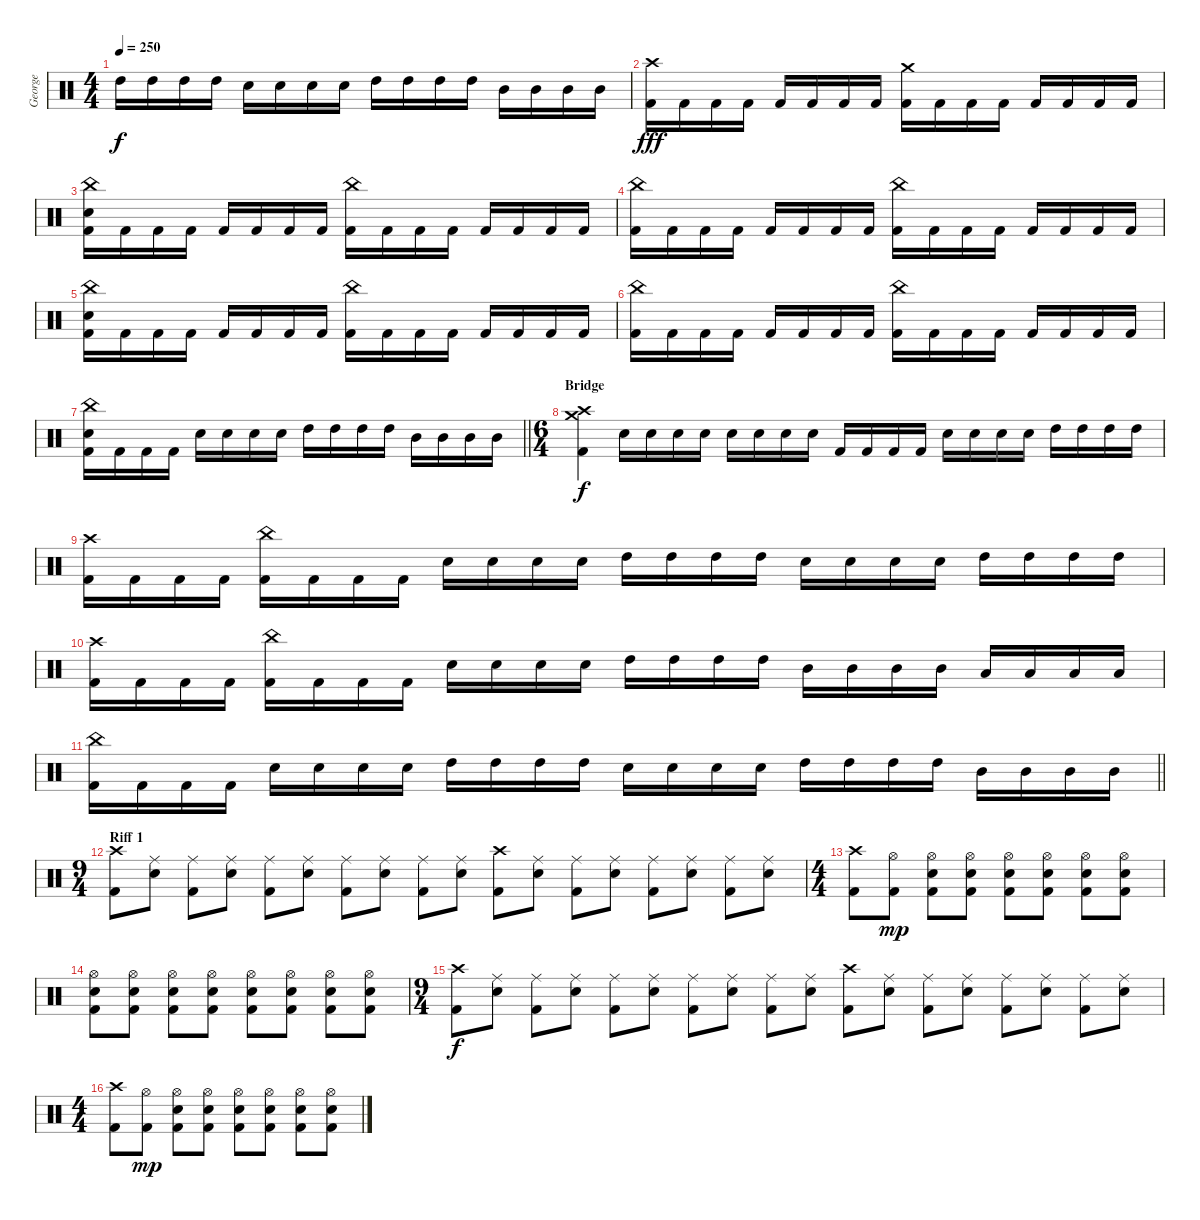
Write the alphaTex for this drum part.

\track ("George" "George") {instrument percussion}
\staff {score}
\articulation defaults
\ts (4 4)
\tempo 250
\clef neutral
\ks c "High Tom (hit)".16{dy f} "High Tom (hit)".16 "High Tom (hit)".16 "High Tom (hit)".16 "Snare (hit) 2".16 "Snare (hit) 2".16 "Snare (hit) 2".16 "Snare (hit) 2".16 "High Tom (hit)".16 "High Tom (hit)".16 "High Tom (hit)".16 "High Tom (hit)".16 "Mid Tom (hit)".16 "Mid Tom (hit)".16 "Mid Tom (hit)".16 "Mid Tom (hit)".16
|
("Crash high (hit)" "Kick (hit) 2").16{dy fff} "Kick (hit) 2".16 "Kick (hit) 2".16 "Kick (hit) 2".16 "Kick (hit) 2".16 "Kick (hit) 2".16 "Kick (hit) 2".16 "Kick (hit) 2".16 ("Crash medium (hit)" "Kick (hit) 2").16 "Kick (hit) 2".16 "Kick (hit) 2".16 "Kick (hit) 2".16 "Kick (hit) 2".16 "Kick (hit) 2".16 "Kick (hit) 2".16 "Kick (hit) 2".16 |
("China (hit)" "Snare (hit) 2" "Kick (hit) 2").16 "Kick (hit) 2".16 "Kick (hit) 2".16 "Kick (hit) 2".16 "Kick (hit) 2".16 "Kick (hit) 2".16 "Kick (hit) 2".16 "Kick (hit) 2".16 ("China (hit)" "Kick (hit) 2").16 "Kick (hit) 2".16 "Kick (hit) 2".16 "Kick (hit) 2".16 "Kick (hit) 2".16 "Kick (hit) 2".16 "Kick (hit) 2".16 "Kick (hit) 2".16 |
("China (hit)" "Kick (hit) 2").16 "Kick (hit) 2".16 "Kick (hit) 2".16 "Kick (hit) 2".16 "Kick (hit) 2".16 "Kick (hit) 2".16 "Kick (hit) 2".16 "Kick (hit) 2".16 ("China (hit)" "Kick (hit) 2").16 "Kick (hit) 2".16 "Kick (hit) 2".16 "Kick (hit) 2".16 "Kick (hit) 2".16 "Kick (hit) 2".16 "Kick (hit) 2".16 "Kick (hit) 2".16 |
("China (hit)" "Snare (hit) 2" "Kick (hit) 2").16 "Kick (hit) 2".16 "Kick (hit) 2".16 "Kick (hit) 2".16 "Kick (hit) 2".16 "Kick (hit) 2".16 "Kick (hit) 2".16 "Kick (hit) 2".16 ("China (hit)" "Kick (hit) 2").16 "Kick (hit) 2".16 "Kick (hit) 2".16 "Kick (hit) 2".16 "Kick (hit) 2".16 "Kick (hit) 2".16 "Kick (hit) 2".16 "Kick (hit) 2".16 |
("China (hit)" "Kick (hit) 2").16 "Kick (hit) 2".16 "Kick (hit) 2".16 "Kick (hit) 2".16 "Kick (hit) 2".16 "Kick (hit) 2".16 "Kick (hit) 2".16 "Kick (hit) 2".16 ("China (hit)" "Kick (hit) 2").16 "Kick (hit) 2".16 "Kick (hit) 2".16 "Kick (hit) 2".16 "Kick (hit) 2".16 "Kick (hit) 2".16 "Kick (hit) 2".16 "Kick (hit) 2".16 |
\barLineRight lightlight
("China (hit)" "Snare (hit) 2" "Kick (hit) 2").16 "Kick (hit) 2".16 "Kick (hit) 2".16 "Kick (hit) 2".16 "Snare (hit) 2".16 "Snare (hit) 2".16 "Snare (hit) 2".16 "Snare (hit) 2".16 "High Tom (hit)".16 "High Tom (hit)".16 "High Tom (hit)".16 "High Tom (hit)".16 "Mid Tom (hit)".16 "Mid Tom (hit)".16 "Mid Tom (hit)".16 "Mid Tom (hit)".16 |
\ts (6 4)
\section ("" "Bridge")
("Crash high (hit)" "Crash medium (hit)" "Kick (hit) 2").4{dy f} "Snare (hit) 2".16 "Snare (hit) 2".16 "Snare (hit) 2".16 "Snare (hit) 2".16 "Snare (hit) 2".16 "Snare (hit) 2".16 "Snare (hit) 2".16 "Snare (hit) 2".16 "Kick (hit) 2".16 "Kick (hit) 2".16 "Kick (hit) 2".16 "Kick (hit) 2".16 "Snare (hit) 2".16 "Snare (hit) 2".16 "Snare (hit) 2".16 "Snare (hit) 2".16 "High Tom (hit)".16 "High Tom (hit)".16 "High Tom (hit)".16 "High Tom (hit)".16 |
("Crash high (hit)" "Kick (hit) 2").16 "Kick (hit) 2".16 "Kick (hit) 2".16 "Kick (hit) 2".16 ("China (hit)" "Kick (hit) 2").16 "Kick (hit) 2".16 "Kick (hit) 2".16 "Kick (hit) 2".16 "Snare (hit) 2".16 "Snare (hit) 2".16 "Snare (hit) 2".16 "Snare (hit) 2".16 "High Tom (hit)".16 "High Tom (hit)".16 "High Tom (hit)".16 "High Tom (hit)".16 "Snare (hit) 2".16 "Snare (hit) 2".16 "Snare (hit) 2".16 "Snare (hit) 2".16 "High Tom (hit)".16 "High Tom (hit)".16 "High Tom (hit)".16 "High Tom (hit)".16 |
("Crash high (hit)" "Kick (hit) 2").16 "Kick (hit) 2".16 "Kick (hit) 2".16 "Kick (hit) 2".16 ("China (hit)" "Kick (hit) 2").16 "Kick (hit) 2".16 "Kick (hit) 2".16 "Kick (hit) 2".16 "Snare (hit) 2".16 "Snare (hit) 2".16 "Snare (hit) 2".16 "Snare (hit) 2".16 "High Tom (hit)".16 "High Tom (hit)".16 "High Tom (hit)".16 "High Tom (hit)".16 "Mid Tom (hit)".16 "Mid Tom (hit)".16 "Mid Tom (hit)".16 "Mid Tom (hit)".16 "Low Tom (hit)".16 "Low Tom (hit)".16 "Low Tom (hit)".16 "Low Tom (hit)".16 |
\barLineRight lightlight
("China (hit)" "Kick (hit) 2").16 "Kick (hit) 2".16 "Kick (hit) 2".16 "Kick (hit) 2".16 "Snare (hit) 2".16 "Snare (hit) 2".16 "Snare (hit) 2".16 "Snare (hit) 2".16 "High Tom (hit)".16 "High Tom (hit)".16 "High Tom (hit)".16 "High Tom (hit)".16 "Snare (hit) 2".16 "Snare (hit) 2".16 "Snare (hit) 2".16 "Snare (hit) 2".16 "High Tom (hit)".16 "High Tom (hit)".16 "High Tom (hit)".16 "High Tom (hit)".16 "Mid Tom (hit)".16 "Mid Tom (hit)".16 "Mid Tom (hit)".16 "Mid Tom (hit)".16 |
\ts (9 4)
\section ("" "Riff 1")
("Crash high (hit)" "Kick (hit) 2").8 ("Ride (middle)" "Snare (hit) 2").8 ("Ride (middle)" "Kick (hit) 2").8 ("Ride (middle)" "Snare (hit) 2").8 ("Ride (middle)" "Kick (hit) 2").8 ("Ride (middle)" "Snare (hit) 2").8 ("Ride (middle)" "Kick (hit) 2").8 ("Ride (middle)" "Snare (hit) 2").8 ("Ride (middle)" "Kick (hit) 2").8 ("Ride (middle)" "Snare (hit) 2").8 ("Crash high (hit)" "Kick (hit) 2").8 ("Ride (middle)" "Snare (hit) 2").8 ("Ride (middle)" "Kick (hit) 2").8 ("Ride (middle)" "Snare (hit) 2").8 ("Ride (middle)" "Kick (hit) 2").8 ("Ride (middle)" "Snare (hit) 2").8 ("Ride (middle)" "Kick (hit) 2").8 ("Ride (middle)" "Snare (hit) 2").8 |
\ts (4 4)
("Crash high (hit)" "Kick (hit) 2").8 ("Hi-Hat (open)" "Kick (hit) 2").8{dy mp} ("Hi-Hat (open)" "Snare (hit) 2" "Kick (hit) 2").8 ("Hi-Hat (open)" "Snare (hit) 2" "Kick (hit) 2").8 ("Hi-Hat (open)" "Snare (hit) 2" "Kick (hit) 2").8 ("Hi-Hat (open)" "Snare (hit) 2" "Kick (hit) 2").8 ("Hi-Hat (open)" "Snare (hit) 2" "Kick (hit) 2").8 ("Hi-Hat (open)" "Snare (hit) 2" "Kick (hit) 2").8 |
("Hi-Hat (open)" "Snare (hit) 2" "Kick (hit) 2").8 ("Hi-Hat (open)" "Snare (hit) 2" "Kick (hit) 2").8 ("Hi-Hat (open)" "Snare (hit) 2" "Kick (hit) 2").8 ("Hi-Hat (open)" "Snare (hit) 2" "Kick (hit) 2").8 ("Hi-Hat (open)" "Snare (hit) 2" "Kick (hit) 2").8 ("Hi-Hat (open)" "Snare (hit) 2" "Kick (hit) 2").8 ("Hi-Hat (open)" "Snare (hit) 2" "Kick (hit) 2").8 ("Hi-Hat (open)" "Snare (hit) 2" "Kick (hit) 2").8 |
\ts (9 4)
("Crash high (hit)" "Kick (hit) 2").8{dy f} ("Ride (middle)" "Snare (hit) 2").8 ("Ride (middle)" "Kick (hit) 2").8 ("Ride (middle)" "Snare (hit) 2").8 ("Ride (middle)" "Kick (hit) 2").8 ("Ride (middle)" "Snare (hit) 2").8 ("Ride (middle)" "Kick (hit) 2").8 ("Ride (middle)" "Snare (hit) 2").8 ("Ride (middle)" "Kick (hit) 2").8 ("Ride (middle)" "Snare (hit) 2").8 ("Crash high (hit)" "Kick (hit) 2").8 ("Ride (middle)" "Snare (hit) 2").8 ("Ride (middle)" "Kick (hit) 2").8 ("Ride (middle)" "Snare (hit) 2").8 ("Ride (middle)" "Kick (hit) 2").8 ("Ride (middle)" "Snare (hit) 2").8 ("Ride (middle)" "Kick (hit) 2").8 ("Ride (middle)" "Snare (hit) 2").8 |
\ts (4 4)
("Crash high (hit)" "Kick (hit) 2").8 ("Hi-Hat (open)" "Kick (hit) 2").8{dy mp} ("Hi-Hat (open)" "Snare (hit) 2" "Kick (hit) 2").8 ("Hi-Hat (open)" "Snare (hit) 2" "Kick (hit) 2").8 ("Hi-Hat (open)" "Snare (hit) 2" "Kick (hit) 2").8 ("Hi-Hat (open)" "Snare (hit) 2" "Kick (hit) 2").8 ("Hi-Hat (open)" "Snare (hit) 2" "Kick (hit) 2").8 ("Hi-Hat (open)" "Snare (hit) 2" "Kick (hit) 2").8
